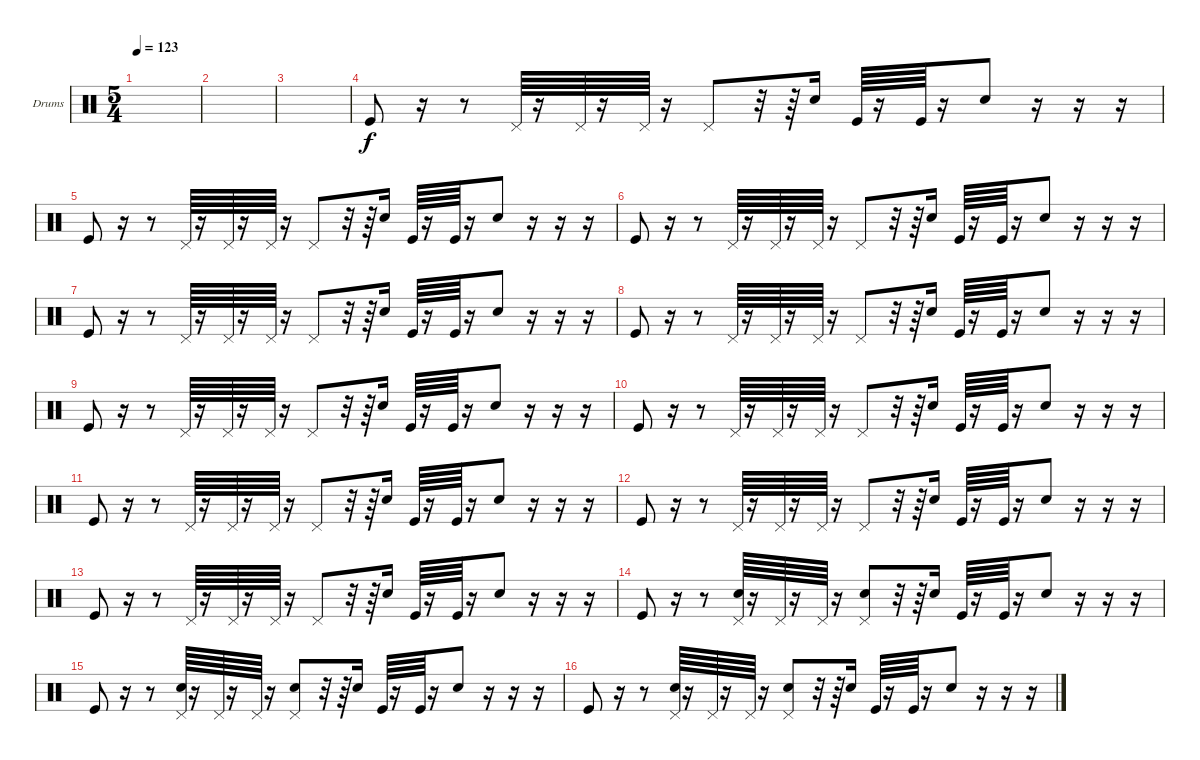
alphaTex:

\defaultSystemsLayout 4
\bracketExtendMode groupsimilarinstruments
\firstSystemTrackNameOrientation horizontal
\otherSystemsTrackNameOrientation horizontal
\track ("Drumkit" "Drums") {instrument percussion}
\staff {score}
\articulation defaults
\ts (5 4)
\tempo 123
\clef neutral
\ks c
|
|
|
"Kick (hit)".8 r.16 r.8 "Pedal Hi-Hat (hit)".64 r.16 "Pedal Hi-Hat (hit)".64 r.16 "Pedal Hi-Hat (hit)".64 r.16 "Pedal Hi-Hat (hit)".8 r.32 r.64 "Snare (hit) 2".16 "Kick (hit)".64 r.16 "Kick (hit)".64 r.16 "Snare (hit) 2".8 r.16 r.16 r.16 |
"Kick (hit)".8 r.16 r.8 "Pedal Hi-Hat (hit)".64 r.16 "Pedal Hi-Hat (hit)".64 r.16 "Pedal Hi-Hat (hit)".64 r.16 "Pedal Hi-Hat (hit)".8 r.32 r.64 "Snare (hit) 2".16 "Kick (hit)".64 r.16 "Kick (hit)".64 r.16 "Snare (hit) 2".8 r.16 r.16 r.16 |
"Kick (hit)".8 r.16 r.8 "Pedal Hi-Hat (hit)".64 r.16 "Pedal Hi-Hat (hit)".64 r.16 "Pedal Hi-Hat (hit)".64 r.16 "Pedal Hi-Hat (hit)".8 r.32 r.64 "Snare (hit) 2".16 "Kick (hit)".64 r.16 "Kick (hit)".64 r.16 "Snare (hit) 2".8 r.16 r.16 r.16 |
"Kick (hit)".8 r.16 r.8 "Pedal Hi-Hat (hit)".64 r.16 "Pedal Hi-Hat (hit)".64 r.16 "Pedal Hi-Hat (hit)".64 r.16 "Pedal Hi-Hat (hit)".8 r.32 r.64 "Snare (hit) 2".16 "Kick (hit)".64 r.16 "Kick (hit)".64 r.16 "Snare (hit) 2".8 r.16 r.16 r.16 |
"Kick (hit)".8 r.16 r.8 "Pedal Hi-Hat (hit)".64 r.16 "Pedal Hi-Hat (hit)".64 r.16 "Pedal Hi-Hat (hit)".64 r.16 "Pedal Hi-Hat (hit)".8 r.32 r.64 "Snare (hit) 2".16 "Kick (hit)".64 r.16 "Kick (hit)".64 r.16 "Snare (hit) 2".8 r.16 r.16 r.16 |
"Kick (hit)".8 r.16 r.8 "Pedal Hi-Hat (hit)".64 r.16 "Pedal Hi-Hat (hit)".64 r.16 "Pedal Hi-Hat (hit)".64 r.16 "Pedal Hi-Hat (hit)".8 r.32 r.64 "Snare (hit) 2".16 "Kick (hit)".64 r.16 "Kick (hit)".64 r.16 "Snare (hit) 2".8 r.16 r.16 r.16 |
"Kick (hit)".8 r.16 r.8 "Pedal Hi-Hat (hit)".64 r.16 "Pedal Hi-Hat (hit)".64 r.16 "Pedal Hi-Hat (hit)".64 r.16 "Pedal Hi-Hat (hit)".8 r.32 r.64 "Snare (hit) 2".16 "Kick (hit)".64 r.16 "Kick (hit)".64 r.16 "Snare (hit) 2".8 r.16 r.16 r.16 |
"Kick (hit)".8 r.16 r.8 "Pedal Hi-Hat (hit)".64 r.16 "Pedal Hi-Hat (hit)".64 r.16 "Pedal Hi-Hat (hit)".64 r.16 "Pedal Hi-Hat (hit)".8 r.32 r.64 "Snare (hit) 2".16 "Kick (hit)".64 r.16 "Kick (hit)".64 r.16 "Snare (hit) 2".8 r.16 r.16 r.16 |
"Kick (hit)".8 r.16 r.8 "Pedal Hi-Hat (hit)".64 r.16 "Pedal Hi-Hat (hit)".64 r.16 "Pedal Hi-Hat (hit)".64 r.16 "Pedal Hi-Hat (hit)".8 r.32 r.64 "Snare (hit) 2".16 "Kick (hit)".64 r.16 "Kick (hit)".64 r.16 "Snare (hit) 2".8 r.16 r.16 r.16 |
"Kick (hit)".8 r.16 r.8 "Pedal Hi-Hat (hit)".64 r.16 "Pedal Hi-Hat (hit)".64 r.16 "Pedal Hi-Hat (hit)".64 r.16 "Pedal Hi-Hat (hit)".8 r.32 r.64 "Snare (hit) 2".16 "Kick (hit)".64 r.16 "Kick (hit)".64 r.16 "Snare (hit) 2".8 r.16 r.16 r.16 |
"Kick (hit)".8 r.16 r.8 ("Pedal Hi-Hat (hit)" "Snare (hit) 2").64 r.16 "Pedal Hi-Hat (hit)".64 r.16 "Pedal Hi-Hat (hit)".64 r.16 ("Pedal Hi-Hat (hit)" "Snare (hit) 2").8 r.32 r.64 "Snare (hit) 2".16 "Kick (hit)".64 r.16 "Kick (hit)".64 r.16 "Snare (hit) 2".8 r.16 r.16 r.16 |
"Kick (hit)".8 r.16 r.8 ("Pedal Hi-Hat (hit)" "Snare (hit) 2").64 r.16 "Pedal Hi-Hat (hit)".64 r.16 "Pedal Hi-Hat (hit)".64 r.16 ("Pedal Hi-Hat (hit)" "Snare (hit) 2").8 r.32 r.64 "Snare (hit) 2".16 "Kick (hit)".64 r.16 "Kick (hit)".64 r.16 "Snare (hit) 2".8 r.16 r.16 r.16 |
"Kick (hit)".8 r.16 r.8 ("Pedal Hi-Hat (hit)" "Snare (hit) 2").64 r.16 "Pedal Hi-Hat (hit)".64 r.16 "Pedal Hi-Hat (hit)".64 r.16 ("Pedal Hi-Hat (hit)" "Snare (hit) 2").8 r.32 r.64 "Snare (hit) 2".16 "Kick (hit)".64 r.16 "Kick (hit)".64 r.16 "Snare (hit) 2".8 r.16 r.16 r.16
